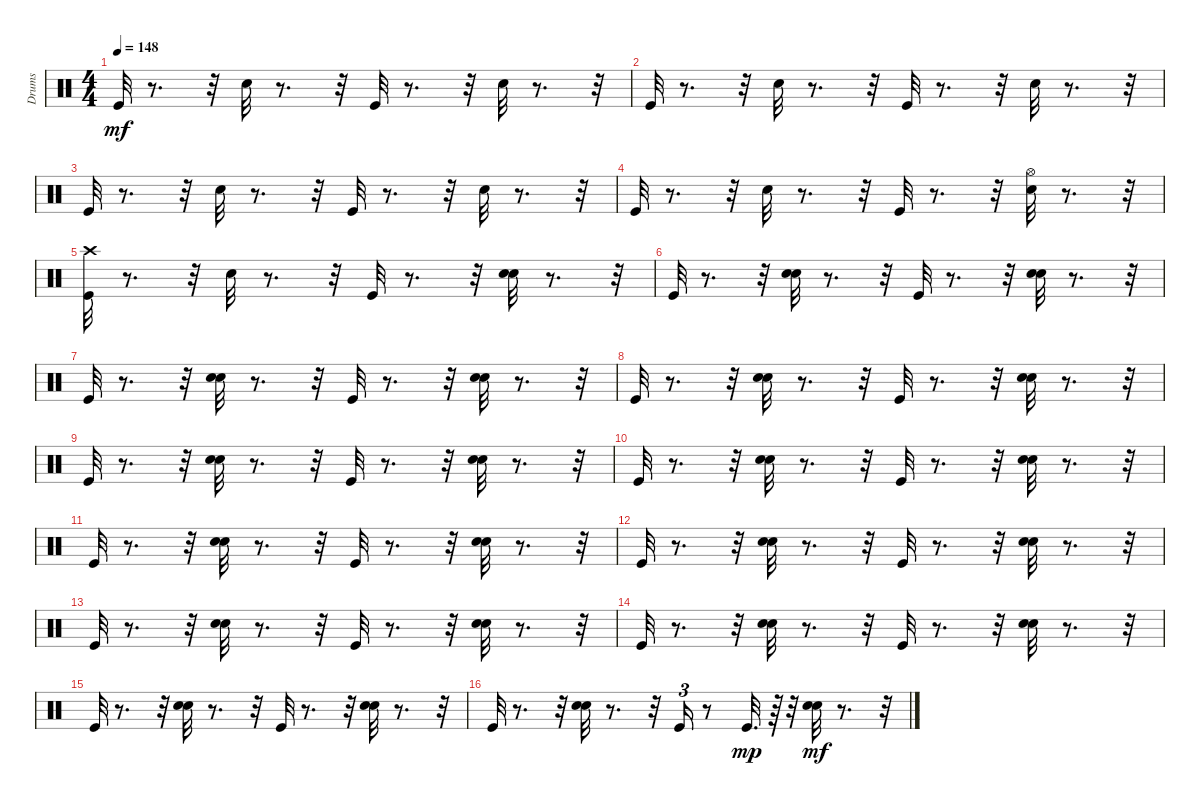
\track ("Drums" "Drums") {instrument percussion}
\staff {score}
\articulation defaults
\ts (4 4)
\tempo 148
\clef neutral
\ks c "Kick (hit)".32{dy mf}
r.8{d} r.32 "Electric Snare (hit)".32 r.8{d} r.32 "Kick (hit)".32 r.8{d} r.32 "Electric Snare (hit)".32 r.8{d} r.32 |
"Kick (hit)".32 r.8{d} r.32 "Electric Snare (hit)".32 r.8{d} r.32 "Kick (hit)".32 r.8{d} r.32 "Electric Snare (hit)".32 r.8{d} r.32 |
"Kick (hit)".32 r.8{d} r.32 "Electric Snare (hit)".32 r.8{d} r.32 "Kick (hit)".32 r.8{d} r.32 "Electric Snare (hit)".32 r.8{d} r.32 |
"Kick (hit)".32 r.8{d} r.32 "Electric Snare (hit)".32 r.8{d} r.32 "Kick (hit)".32 r.8{d} r.32 ("Hi-Hat (open)" "Electric Snare (hit)").32 r.8{d} r.32 |
("Crash high (hit)" "Kick (hit)").32 r.8{d} r.32 "Electric Snare (hit)".32 r.8{d} r.32 "Kick (hit)".32 r.8{d} r.32 ("Hand Clap (hit)" "Electric Snare (hit)").32 r.8{d} r.32 |
"Kick (hit)".32 r.8{d} r.32 ("Hand Clap (hit)" "Electric Snare (hit)").32 r.8{d} r.32 "Kick (hit)".32 r.8{d} r.32 ("Hand Clap (hit)" "Electric Snare (hit)").32 r.8{d} r.32 |
"Kick (hit)".32 r.8{d} r.32 ("Hand Clap (hit)" "Electric Snare (hit)").32 r.8{d} r.32 "Kick (hit)".32 r.8{d} r.32 ("Hand Clap (hit)" "Electric Snare (hit)").32 r.8{d} r.32 |
"Kick (hit)".32 r.8{d} r.32 ("Hand Clap (hit)" "Electric Snare (hit)").32 r.8{d} r.32 "Kick (hit)".32 r.8{d} r.32 ("Hand Clap (hit)" "Electric Snare (hit)").32 r.8{d} r.32 |
"Kick (hit)".32 r.8{d} r.32 ("Hand Clap (hit)" "Electric Snare (hit)").32 r.8{d} r.32 "Kick (hit)".32 r.8{d} r.32 ("Hand Clap (hit)" "Electric Snare (hit)").32 r.8{d} r.32 |
"Kick (hit)".32 r.8{d} r.32 ("Hand Clap (hit)" "Electric Snare (hit)").32 r.8{d} r.32 "Kick (hit)".32 r.8{d} r.32 ("Hand Clap (hit)" "Electric Snare (hit)").32 r.8{d} r.32 |
"Kick (hit)".32 r.8{d} r.32 ("Hand Clap (hit)" "Electric Snare (hit)").32 r.8{d} r.32 "Kick (hit)".32 r.8{d} r.32 ("Hand Clap (hit)" "Electric Snare (hit)").32 r.8{d} r.32 |
"Kick (hit)".32 r.8{d} r.32 ("Hand Clap (hit)" "Electric Snare (hit)").32 r.8{d} r.32 "Kick (hit)".32 r.8{d} r.32 ("Hand Clap (hit)" "Electric Snare (hit)").32 r.8{d} r.32 |
"Kick (hit)".32 r.8{d} r.32 ("Hand Clap (hit)" "Electric Snare (hit)").32 r.8{d} r.32 "Kick (hit)".32 r.8{d} r.32 ("Hand Clap (hit)" "Electric Snare (hit)").32 r.8{d} r.32 |
"Kick (hit)".32 r.8{d} r.32 ("Hand Clap (hit)" "Electric Snare (hit)").32 r.8{d} r.32 "Kick (hit)".32 r.8{d} r.32 ("Hand Clap (hit)" "Electric Snare (hit)").32 r.8{d} r.32 |
"Kick (hit)".32 r.8{d} r.32 ("Hand Clap (hit)" "Electric Snare (hit)").32 r.8{d} r.32 "Kick (hit)".32 r.8{d} r.32 ("Hand Clap (hit)" "Electric Snare (hit)").32 r.8{d} r.32 |
"Kick (hit)".32 r.8{d} r.32 ("Hand Clap (hit)" "Electric Snare (hit)").32 r.8{d} r.32 "Kick (hit)".16{tu (3 2)} r.8 "Kick (hit)".32{d dy mp} r.64 r.32 ("Hand Clap (hit)" "Electric Snare (hit)").32{dy mf} r.8{d} r.32
